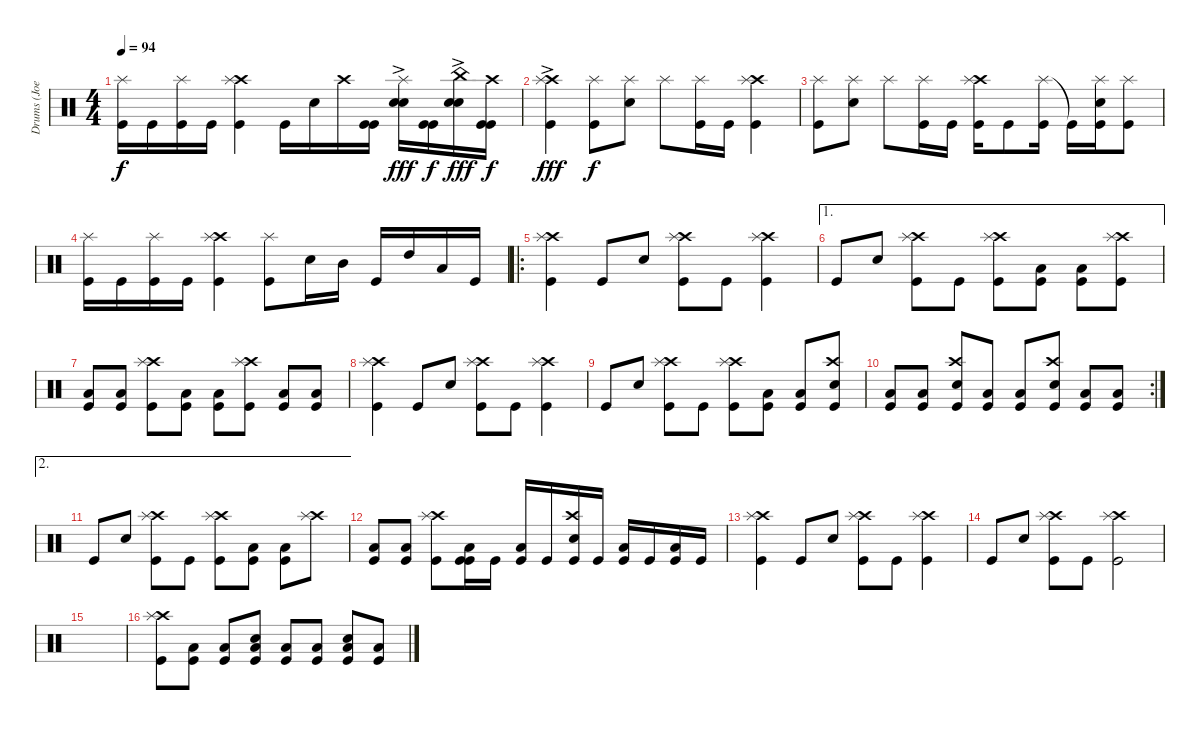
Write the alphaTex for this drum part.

\track ("Drums (Joe)" "Drums (Joe") {instrument percussion}
\staff {score}
\articulation defaults
\ts (4 4)
\tempo 94
\clef neutral
\ks c
("Splash (hit)" "Kick (hit)").16{dy f} "Kick (hit)".16 ("Splash (hit)" "Kick (hit)").16 "Kick (hit)".16 ("Crash high (hit)" "Splash (hit)" "Kick (hit)").4 "Kick (hit)".16 "Snare (hit) 2".16 "Crash high (hit)".16 ("Kick (hit)" "Kick (hit)").16 ("Splash (hit)"{ac} "Snare (hit) 2" "Snare (hit) 2").16{dy fff} ("Kick (hit)" "Kick (hit)").16{dy f} ("China (hit)"{ac} "Snare (hit) 2" "Snare (hit) 2").16{dy fff} ("Crash high (hit)" "Kick (hit)" "Kick (hit)").16{dy f} |
("Crash high (hit)" "Splash (hit)"{ac} "Kick (hit)").4{dy fff} ("Splash (hit)" "Kick (hit)").8{dy f} ("Splash (hit)" "Snare (hit) 2").8 "Splash (hit)".8 ("Splash (hit)" "Kick (hit)").16 "Kick (hit)".16 ("Crash high (hit)" "Splash (hit)" "Kick (hit)").4 |
("Splash (hit)" "Kick (hit)").8 ("Splash (hit)" "Snare (hit) 2").8 "Splash (hit)".8 ("Splash (hit)" "Kick (hit)").16 "Kick (hit)".16 ("Crash high (hit)" "Splash (hit)" "Kick (hit)").16 "Kick (hit)".8 ("Splash (hit)" "Kick (hit)").16 "Kick (hit)"{t}.16 ("Splash (hit)" "Snare (hit) 2" "Kick (hit)").16 ("Splash (hit)" "Kick (hit)").8 |
("Splash (hit)" "Kick (hit)").16 "Kick (hit)".16 ("Splash (hit)" "Kick (hit)").16 "Kick (hit)".16 ("Crash high (hit)" "Splash (hit)" "Kick (hit)").4 ("Splash (hit)" "Kick (hit)").8 "Snare (hit) 2".16 "Mid Tom (hit)".16 "Kick (hit)".16 "High Tom (hit)".16 "Low Tom (hit)".16 "Kick (hit)".16 |
\ro
("Crash high (hit)" "Splash (hit)" "Kick (hit)").4 "Kick (hit)".8 "Snare (hit) 2".8 ("Crash high (hit)" "Splash (hit)" "Kick (hit)").8 "Kick (hit)".8 ("Crash high (hit)" "Splash (hit)" "Kick (hit)").4 |
\ae 1 "Kick (hit)".8 "Snare (hit) 2".8
("Crash high (hit)" "Splash (hit)" "Kick (hit)").8 "Kick (hit)".8 ("Crash high (hit)" "Splash (hit)" "Kick (hit)").8 ("Low Floor Tom (hit)" "Kick (hit)").8 ("Low Floor Tom (hit)" "Kick (hit)").8 ("Crash high (hit)" "Splash (hit)" "Kick (hit)").8 |
("Low Floor Tom (hit)" "Kick (hit)").8 ("Low Floor Tom (hit)" "Kick (hit)").8 ("Crash high (hit)" "Splash (hit)" "Kick (hit)").8 ("Low Floor Tom (hit)" "Kick (hit)").8 ("Low Floor Tom (hit)" "Kick (hit)").8 ("Crash high (hit)" "Splash (hit)" "Kick (hit)").8 ("Low Floor Tom (hit)" "Kick (hit)").8 ("Low Floor Tom (hit)" "Kick (hit)").8 |
("Crash high (hit)" "Splash (hit)" "Kick (hit)").4 "Kick (hit)".8 "Snare (hit) 2".8 ("Crash high (hit)" "Splash (hit)" "Kick (hit)").8 "Kick (hit)".8 ("Crash high (hit)" "Splash (hit)" "Kick (hit)").4 |
"Kick (hit)".8 "Snare (hit) 2".8 ("Crash high (hit)" "Splash (hit)" "Kick (hit)").8 "Kick (hit)".8 ("Crash high (hit)" "Splash (hit)" "Kick (hit)").8 ("Low Floor Tom (hit)" "Kick (hit)").8 ("Low Floor Tom (hit)" "Kick (hit)").8 ("Crash high (hit)" "Snare (hit) 2" "Kick (hit)").8 |
\rc 2
("Low Floor Tom (hit)" "Kick (hit)").8 ("Low Floor Tom (hit)" "Kick (hit)").8 ("Crash high (hit)" "Snare (hit) 2" "Kick (hit)").8 ("Low Floor Tom (hit)" "Kick (hit)").8 ("Low Floor Tom (hit)" "Kick (hit)").8 ("Crash high (hit)" "Snare (hit) 2" "Kick (hit)").8 ("Low Floor Tom (hit)" "Kick (hit)").8 ("Low Floor Tom (hit)" "Kick (hit)").8 |
\ae 2 "Kick (hit)".8 "Snare (hit) 2".8
("Crash high (hit)" "Splash (hit)" "Kick (hit)").8 "Kick (hit)".8 ("Crash high (hit)" "Splash (hit)" "Kick (hit)").8 ("Low Floor Tom (hit)" "Kick (hit)").8 ("Low Floor Tom (hit)" "Kick (hit)").8 ("Crash high (hit)" "Splash (hit)").8 |
("Low Floor Tom (hit)" "Kick (hit)").8 ("Low Floor Tom (hit)" "Kick (hit)").8 ("Crash high (hit)" "Splash (hit)" "Kick (hit)").8 ("Low Floor Tom (hit)" "Kick (hit)" "Kick (hit)").16 "Kick (hit)".16 ("Low Floor Tom (hit)" "Kick (hit)").16 "Kick (hit)".16 ("Crash high (hit)" "Snare (hit) 2" "Kick (hit)").16 "Kick (hit)".16 ("Low Floor Tom (hit)" "Kick (hit)").16 "Kick (hit)".16 ("Low Floor Tom (hit)" "Kick (hit)").16 "Kick (hit)".16 |
("Crash high (hit)" "Splash (hit)" "Kick (hit)").4 "Kick (hit)".8 "Snare (hit) 2".8 ("Crash high (hit)" "Splash (hit)" "Kick (hit)").8 "Kick (hit)".8 ("Crash high (hit)" "Splash (hit)" "Kick (hit)").4 |
"Kick (hit)".8 "Snare (hit) 2".8 ("Crash high (hit)" "Splash (hit)" "Kick (hit)").8 "Kick (hit)".8 ("Crash high (hit)" "Splash (hit)" "Kick (hit)").2 |
|
("Crash high (hit)" "Splash (hit)" "Kick (hit)").8 ("Low Floor Tom (hit)" "Kick (hit)").8 ("Low Floor Tom (hit)" "Kick (hit)").8 ("Snare (hit) 2" "Low Floor Tom (hit)" "Kick (hit)").8 ("Low Floor Tom (hit)" "Kick (hit)").8 ("Low Floor Tom (hit)" "Kick (hit)").8 ("Snare (hit) 2" "Low Floor Tom (hit)" "Kick (hit)").8 ("Low Floor Tom (hit)" "Kick (hit)").8
